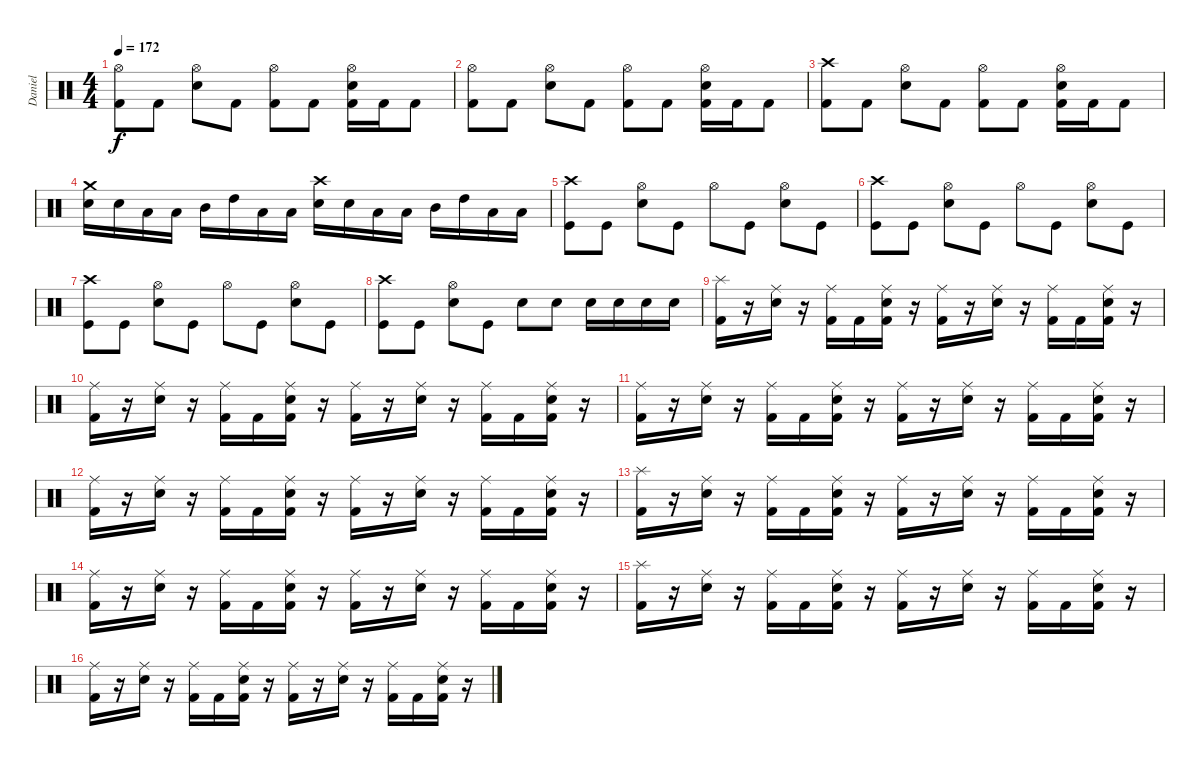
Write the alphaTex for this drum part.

\track ("Daniel" "Daniel") {instrument percussion}
\staff {score}
\articulation defaults
\ts (4 4)
\tempo 172
\clef neutral
\ks c
("Hi-Hat (open)" "Kick (hit) 2").8{dy f} "Kick (hit) 2".8 ("Hi-Hat (open)" "Electric Snare (hit)").8 "Kick (hit) 2".8 ("Hi-Hat (open)" "Kick (hit) 2").8 "Kick (hit) 2".8 ("Hi-Hat (open)" "Electric Snare (hit)" "Kick (hit) 2").16 "Kick (hit) 2".16 "Kick (hit) 2".8 |
("Hi-Hat (open)" "Kick (hit) 2").8 "Kick (hit) 2".8 ("Hi-Hat (open)" "Electric Snare (hit)").8 "Kick (hit) 2".8 ("Hi-Hat (open)" "Kick (hit) 2").8 "Kick (hit) 2".8 ("Hi-Hat (open)" "Electric Snare (hit)" "Kick (hit) 2").16 "Kick (hit) 2".16 "Kick (hit) 2".8 |
("Crash high (hit)" "Kick (hit) 2").8 "Kick (hit) 2".8 ("Hi-Hat (open)" "Electric Snare (hit)").8 "Kick (hit) 2".8 ("Hi-Hat (open)" "Kick (hit) 2").8 "Kick (hit) 2".8 ("Hi-Hat (open)" "Electric Snare (hit)" "Kick (hit) 2").16 "Kick (hit) 2".16 "Kick (hit) 2".8 |
("Crash medium (hit)" "Electric Snare (hit)").16 "Electric Snare (hit)".16 "Low Tom (hit)".16 "Low Tom (hit)".16 "Mid Tom (hit)".16 "High Tom (hit)".16 "Low Tom (hit)".16 "Low Tom (hit)".16 ("Crash high (hit)" "Electric Snare (hit)").16 "Electric Snare (hit)".16 "Low Tom (hit)".16 "Low Tom (hit)".16 "Mid Tom (hit)".16 "High Tom (hit)".16 "Low Tom (hit)".16 "Low Tom (hit)".16 |
("Crash high (hit)" "Kick (hit)").8 "Kick (hit)".8 ("Hi-Hat (open)" "Electric Snare (hit)").8 "Kick (hit)".8 "Hi-Hat (open)".8 "Kick (hit)".8 ("Hi-Hat (open)" "Electric Snare (hit)").8 "Kick (hit)".8 |
("Crash high (hit)" "Kick (hit)").8 "Kick (hit)".8 ("Hi-Hat (open)" "Electric Snare (hit)").8 "Kick (hit)".8 "Hi-Hat (open)".8 "Kick (hit)".8 ("Hi-Hat (open)" "Electric Snare (hit)").8 "Kick (hit)".8 |
("Crash high (hit)" "Kick (hit)").8 "Kick (hit)".8 ("Hi-Hat (open)" "Electric Snare (hit)").8 "Kick (hit)".8 "Hi-Hat (open)".8 "Kick (hit)".8 ("Hi-Hat (open)" "Electric Snare (hit)").8 "Kick (hit)".8 |
("Crash high (hit)" "Kick (hit)").8 "Kick (hit)".8 ("Hi-Hat (open)" "Electric Snare (hit)").8 "Kick (hit)".8 "Electric Snare (hit)".8 "Electric Snare (hit)".8 "Electric Snare (hit)".16 "Electric Snare (hit)".16 "Electric Snare (hit)".16 "Electric Snare (hit)".16 |
("Kick (hit) 2" "Splash (hit)").16 r.16 ("Snare (hit) 2" "Ride (middle)").16 r.16 ("Kick (hit) 2" "Ride (middle)").16 "Kick (hit) 2".16 ("Kick (hit) 2" "Snare (hit) 2" "Ride (middle)").16 r.16 ("Kick (hit) 2" "Ride (middle)").16 r.16 ("Snare (hit) 2" "Ride (middle)").16 r.16 ("Kick (hit) 2" "Ride (middle)").16 "Kick (hit) 2".16 ("Kick (hit) 2" "Snare (hit) 2" "Ride (middle)").16 r.16 |
("Kick (hit) 2" "Ride (middle)").16 r.16 ("Snare (hit) 2" "Ride (middle)").16 r.16 ("Kick (hit) 2" "Ride (middle)").16 "Kick (hit) 2".16 ("Kick (hit) 2" "Snare (hit) 2" "Ride (middle)").16 r.16 ("Kick (hit) 2" "Ride (middle)").16 r.16 ("Snare (hit) 2" "Ride (middle)").16 r.16 ("Kick (hit) 2" "Ride (middle)").16 "Kick (hit) 2".16 ("Kick (hit) 2" "Snare (hit) 2" "Ride (middle)").16 r.16 |
("Kick (hit) 2" "Ride (middle)").16 r.16 ("Snare (hit) 2" "Ride (middle)").16 r.16 ("Kick (hit) 2" "Ride (middle)").16 "Kick (hit) 2".16 ("Kick (hit) 2" "Snare (hit) 2" "Ride (middle)").16 r.16 ("Kick (hit) 2" "Ride (middle)").16 r.16 ("Snare (hit) 2" "Ride (middle)").16 r.16 ("Kick (hit) 2" "Ride (middle)").16 "Kick (hit) 2".16 ("Kick (hit) 2" "Snare (hit) 2" "Ride (middle)").16 r.16 |
("Kick (hit) 2" "Ride (middle)").16 r.16 ("Snare (hit) 2" "Ride (middle)").16 r.16 ("Kick (hit) 2" "Ride (middle)").16 "Kick (hit) 2".16 ("Kick (hit) 2" "Snare (hit) 2" "Ride (middle)").16 r.16 ("Kick (hit) 2" "Ride (middle)").16 r.16 ("Snare (hit) 2" "Ride (middle)").16 r.16 ("Kick (hit) 2" "Ride (middle)").16 "Kick (hit) 2".16 ("Kick (hit) 2" "Snare (hit) 2" "Ride (middle)").16 r.16 |
("Kick (hit) 2" "Splash (hit)").16 r.16 ("Snare (hit) 2" "Ride (middle)").16 r.16 ("Kick (hit) 2" "Ride (middle)").16 "Kick (hit) 2".16 ("Kick (hit) 2" "Snare (hit) 2" "Ride (middle)").16 r.16 ("Kick (hit) 2" "Ride (middle)").16 r.16 ("Snare (hit) 2" "Ride (middle)").16 r.16 ("Kick (hit) 2" "Ride (middle)").16 "Kick (hit) 2".16 ("Kick (hit) 2" "Snare (hit) 2" "Ride (middle)").16 r.16 |
("Kick (hit) 2" "Ride (middle)").16 r.16 ("Snare (hit) 2" "Ride (middle)").16 r.16 ("Kick (hit) 2" "Ride (middle)").16 "Kick (hit) 2".16 ("Kick (hit) 2" "Snare (hit) 2" "Ride (middle)").16 r.16 ("Kick (hit) 2" "Ride (middle)").16 r.16 ("Snare (hit) 2" "Ride (middle)").16 r.16 ("Kick (hit) 2" "Ride (middle)").16 "Kick (hit) 2".16 ("Kick (hit) 2" "Snare (hit) 2" "Ride (middle)").16 r.16 |
("Kick (hit) 2" "Splash (hit)").16 r.16 ("Snare (hit) 2" "Ride (middle)").16 r.16 ("Kick (hit) 2" "Ride (middle)").16 "Kick (hit) 2".16 ("Kick (hit) 2" "Snare (hit) 2" "Ride (middle)").16 r.16 ("Kick (hit) 2" "Ride (middle)").16 r.16 ("Snare (hit) 2" "Ride (middle)").16 r.16 ("Kick (hit) 2" "Ride (middle)").16 "Kick (hit) 2".16 ("Kick (hit) 2" "Snare (hit) 2" "Ride (middle)").16 r.16 |
("Kick (hit) 2" "Ride (middle)").16 r.16 ("Snare (hit) 2" "Ride (middle)").16 r.16 ("Kick (hit) 2" "Ride (middle)").16 "Kick (hit) 2".16 ("Kick (hit) 2" "Snare (hit) 2" "Ride (middle)").16 r.16 ("Kick (hit) 2" "Ride (middle)").16 r.16 ("Snare (hit) 2" "Ride (middle)").16 r.16 ("Kick (hit) 2" "Ride (middle)").16 "Kick (hit) 2".16 ("Kick (hit) 2" "Snare (hit) 2" "Ride (middle)").16 r.16
